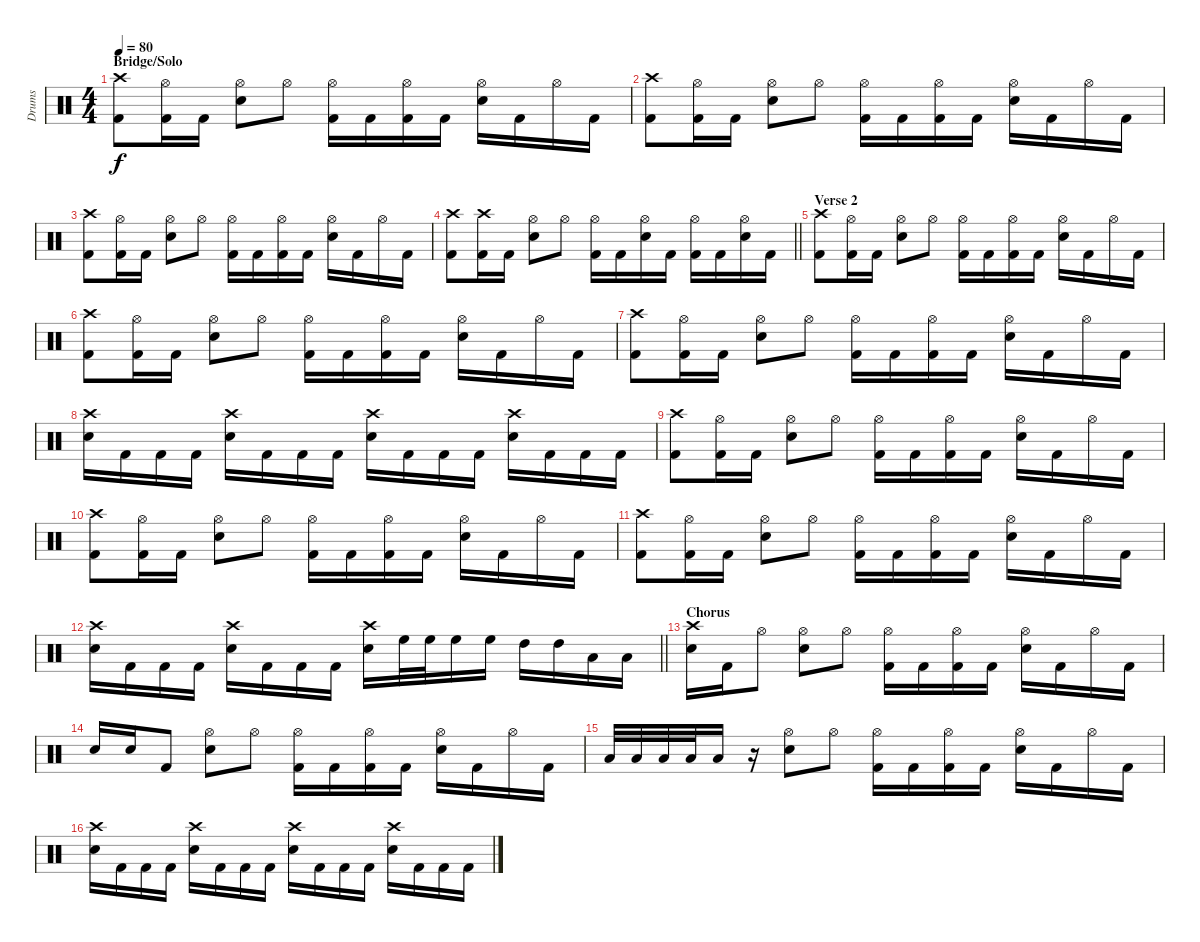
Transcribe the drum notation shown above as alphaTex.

\track ("Drums" "Drums") {instrument percussion}
\staff {score}
\articulation defaults
\ts (4 4)
\section ("" "Bridge/Solo")
\tempo 80
\clef neutral
\ks c
("Crash high (hit)" "Kick (hit) 2").8{dy f} ("Hi-Hat (open)" "Kick (hit) 2").16 "Kick (hit) 2".16 ("Hi-Hat (open)" "Electric Snare (hit)").8 "Hi-Hat (open)".8 ("Hi-Hat (open)" "Kick (hit) 2").16 "Kick (hit) 2".16 ("Hi-Hat (open)" "Kick (hit) 2").16 "Kick (hit) 2".16 ("Hi-Hat (open)" "Electric Snare (hit)").16 "Kick (hit) 2".16 "Hi-Hat (open)".16 "Kick (hit) 2".16 |
("Crash high (hit)" "Kick (hit) 2").8 ("Hi-Hat (open)" "Kick (hit) 2").16 "Kick (hit) 2".16 ("Hi-Hat (open)" "Electric Snare (hit)").8 "Hi-Hat (open)".8 ("Hi-Hat (open)" "Kick (hit) 2").16 "Kick (hit) 2".16 ("Hi-Hat (open)" "Kick (hit) 2").16 "Kick (hit) 2".16 ("Hi-Hat (open)" "Electric Snare (hit)").16 "Kick (hit) 2".16 "Hi-Hat (open)".16 "Kick (hit) 2".16 |
("Crash high (hit)" "Kick (hit) 2").8 ("Hi-Hat (open)" "Kick (hit) 2").16 "Kick (hit) 2".16 ("Hi-Hat (open)" "Electric Snare (hit)").8 "Hi-Hat (open)".8 ("Hi-Hat (open)" "Kick (hit) 2").16 "Kick (hit) 2".16 ("Hi-Hat (open)" "Kick (hit) 2").16 "Kick (hit) 2".16 ("Hi-Hat (open)" "Electric Snare (hit)").16 "Kick (hit) 2".16 "Hi-Hat (open)".16 "Kick (hit) 2".16 |
\barLineRight lightlight
("Crash high (hit)" "Kick (hit) 2").8 ("Crash high (hit)" "Kick (hit) 2").16 "Kick (hit) 2".16 ("Hi-Hat (open)" "Electric Snare (hit)").8 "Hi-Hat (open)".8 ("Hi-Hat (open)" "Kick (hit) 2").16 "Kick (hit) 2".16 ("Hi-Hat (open)" "Electric Snare (hit)").16 "Kick (hit) 2".16 ("Hi-Hat (open)" "Kick (hit) 2").16 "Kick (hit) 2".16 ("Hi-Hat (open)" "Electric Snare (hit)").16 "Kick (hit) 2".16 |
\section ("" "Verse 2")
("Crash high (hit)" "Kick (hit) 2").8 ("Hi-Hat (open)" "Kick (hit) 2").16 "Kick (hit) 2".16 ("Hi-Hat (open)" "Electric Snare (hit)").8 "Hi-Hat (open)".8 ("Hi-Hat (open)" "Kick (hit) 2").16 "Kick (hit) 2".16 ("Hi-Hat (open)" "Kick (hit) 2").16 "Kick (hit) 2".16 ("Hi-Hat (open)" "Electric Snare (hit)").16 "Kick (hit) 2".16 "Hi-Hat (open)".16 "Kick (hit) 2".16 |
("Crash high (hit)" "Kick (hit) 2").8 ("Hi-Hat (open)" "Kick (hit) 2").16 "Kick (hit) 2".16 ("Hi-Hat (open)" "Electric Snare (hit)").8 "Hi-Hat (open)".8 ("Hi-Hat (open)" "Kick (hit) 2").16 "Kick (hit) 2".16 ("Hi-Hat (open)" "Kick (hit) 2").16 "Kick (hit) 2".16 ("Hi-Hat (open)" "Electric Snare (hit)").16 "Kick (hit) 2".16 "Hi-Hat (open)".16 "Kick (hit) 2".16 |
("Crash high (hit)" "Kick (hit) 2").8 ("Hi-Hat (open)" "Kick (hit) 2").16 "Kick (hit) 2".16 ("Hi-Hat (open)" "Electric Snare (hit)").8 "Hi-Hat (open)".8 ("Hi-Hat (open)" "Kick (hit) 2").16 "Kick (hit) 2".16 ("Hi-Hat (open)" "Kick (hit) 2").16 "Kick (hit) 2".16 ("Hi-Hat (open)" "Electric Snare (hit)").16 "Kick (hit) 2".16 "Hi-Hat (open)".16 "Kick (hit) 2".16 |
("Crash high (hit)" "Electric Snare (hit)").16 "Kick (hit) 2".16 "Kick (hit) 2".16 "Kick (hit) 2".16 ("Crash high (hit)" "Electric Snare (hit)").16 "Kick (hit) 2".16 "Kick (hit) 2".16 "Kick (hit) 2".16 ("Crash high (hit)" "Electric Snare (hit)").16 "Kick (hit) 2".16 "Kick (hit) 2".16 "Kick (hit) 2".16 ("Crash high (hit)" "Electric Snare (hit)").16 "Kick (hit) 2".16 "Kick (hit) 2".16 "Kick (hit) 2".16 |
("Crash high (hit)" "Kick (hit) 2").8 ("Hi-Hat (open)" "Kick (hit) 2").16 "Kick (hit) 2".16 ("Hi-Hat (open)" "Electric Snare (hit)").8 "Hi-Hat (open)".8 ("Hi-Hat (open)" "Kick (hit) 2").16 "Kick (hit) 2".16 ("Hi-Hat (open)" "Kick (hit) 2").16 "Kick (hit) 2".16 ("Hi-Hat (open)" "Electric Snare (hit)").16 "Kick (hit) 2".16 "Hi-Hat (open)".16 "Kick (hit) 2".16 |
("Crash high (hit)" "Kick (hit) 2").8 ("Hi-Hat (open)" "Kick (hit) 2").16 "Kick (hit) 2".16 ("Hi-Hat (open)" "Electric Snare (hit)").8 "Hi-Hat (open)".8 ("Hi-Hat (open)" "Kick (hit) 2").16 "Kick (hit) 2".16 ("Hi-Hat (open)" "Kick (hit) 2").16 "Kick (hit) 2".16 ("Hi-Hat (open)" "Electric Snare (hit)").16 "Kick (hit) 2".16 "Hi-Hat (open)".16 "Kick (hit) 2".16 |
("Crash high (hit)" "Kick (hit) 2").8 ("Hi-Hat (open)" "Kick (hit) 2").16 "Kick (hit) 2".16 ("Hi-Hat (open)" "Electric Snare (hit)").8 "Hi-Hat (open)".8 ("Hi-Hat (open)" "Kick (hit) 2").16 "Kick (hit) 2".16 ("Hi-Hat (open)" "Kick (hit) 2").16 "Kick (hit) 2".16 ("Hi-Hat (open)" "Electric Snare (hit)").16 "Kick (hit) 2".16 "Hi-Hat (open)".16 "Kick (hit) 2".16 |
\barLineRight lightlight
("Crash high (hit)" "Electric Snare (hit)").16 "Kick (hit) 2".16 "Kick (hit) 2".16 "Kick (hit) 2".16 ("Crash high (hit)" "Electric Snare (hit)").16 "Kick (hit) 2".16 "Kick (hit) 2".16 "Kick (hit) 2".16 ("Crash high (hit)" "Electric Snare (hit)").16 "High Floor Tom (hit)".32 "High Floor Tom (hit)".32 "High Floor Tom (hit)".16 "High Floor Tom (hit)".16 "High Tom (hit)".16 "High Tom (hit)".16 "Low Tom (hit)".16 "Low Tom (hit)".16 |
\section ("" "Chorus")
("Crash high (hit)" "Electric Snare (hit)").16 "Kick (hit) 2".16 "Hi-Hat (open)".8 ("Hi-Hat (open)" "Electric Snare (hit)").8 "Hi-Hat (open)".8 ("Hi-Hat (open)" "Kick (hit) 2").16 "Kick (hit) 2".16 ("Hi-Hat (open)" "Kick (hit) 2").16 "Kick (hit) 2".16 ("Hi-Hat (open)" "Electric Snare (hit)").16 "Kick (hit) 2".16 "Hi-Hat (open)".16 "Kick (hit) 2".16 |
"Electric Snare (hit)".16 "Electric Snare (hit)".16 "Kick (hit) 2".8 ("Hi-Hat (open)" "Electric Snare (hit)").8 "Hi-Hat (open)".8 ("Hi-Hat (open)" "Kick (hit) 2").16 "Kick (hit) 2".16 ("Hi-Hat (open)" "Kick (hit) 2").16 "Kick (hit) 2".16 ("Hi-Hat (open)" "Electric Snare (hit)").16 "Kick (hit) 2".16 "Hi-Hat (open)".16 "Kick (hit) 2".16 |
"Low Tom (hit)".32 "Low Tom (hit)".32 "Low Tom (hit)".32 "Low Tom (hit)".32 "Low Tom (hit)".16 r.16 ("Hi-Hat (open)" "Electric Snare (hit)").8 "Hi-Hat (open)".8 ("Hi-Hat (open)" "Kick (hit) 2").16 "Kick (hit) 2".16 ("Hi-Hat (open)" "Kick (hit) 2").16 "Kick (hit) 2".16 ("Hi-Hat (open)" "Electric Snare (hit)").16 "Kick (hit) 2".16 "Hi-Hat (open)".16 "Kick (hit) 2".16 |
("Crash high (hit)" "Electric Snare (hit)").16 "Kick (hit) 2".16 "Kick (hit) 2".16 "Kick (hit) 2".16 ("Crash high (hit)" "Electric Snare (hit)").16 "Kick (hit) 2".16 "Kick (hit) 2".16 "Kick (hit) 2".16 ("Crash high (hit)" "Electric Snare (hit)").16 "Kick (hit) 2".16 "Kick (hit) 2".16 "Kick (hit) 2".16 ("Crash high (hit)" "Electric Snare (hit)").16 "Kick (hit) 2".16 "Kick (hit) 2".16 "Kick (hit) 2".16
